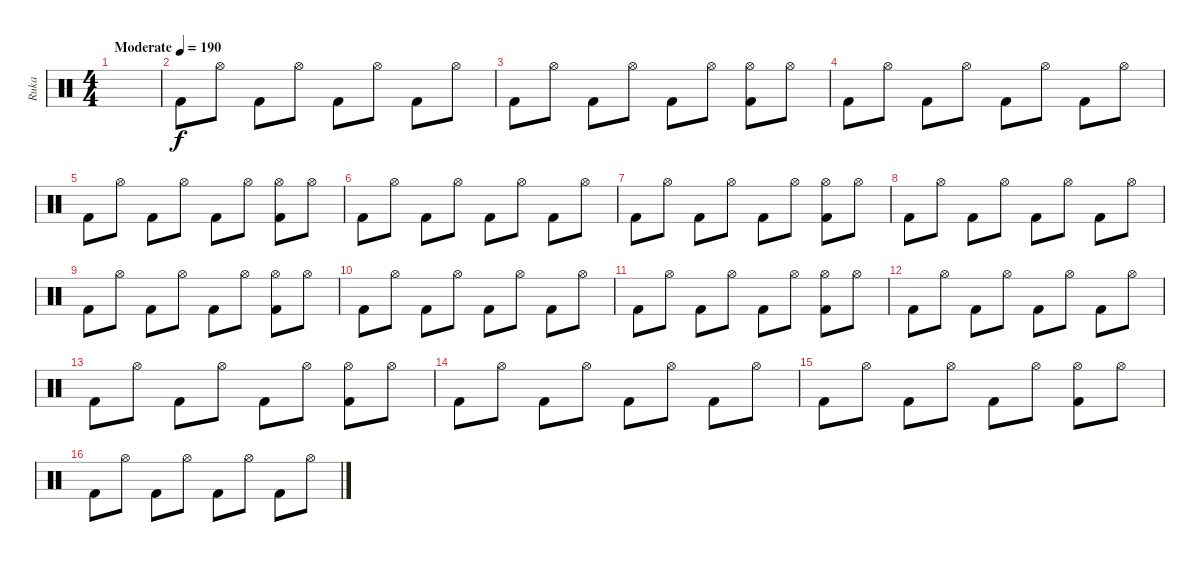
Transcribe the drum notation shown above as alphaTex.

\track ("Ruka" "Ruka") {instrument percussion}
\staff {score}
\articulation defaults
\ts (4 4)
\tempo (190 "Moderate")
\clef neutral
\ks c
|
"Kick (hit) 2".8 "Hi-Hat (open)".8 "Kick (hit) 2".8 "Hi-Hat (open)".8 "Kick (hit) 2".8 "Hi-Hat (open)".8 "Kick (hit) 2".8 "Hi-Hat (open)".8 |
"Kick (hit) 2".8 "Hi-Hat (open)".8 "Kick (hit) 2".8 "Hi-Hat (open)".8 "Kick (hit) 2".8 "Hi-Hat (open)".8 ("Hi-Hat (open)" "Kick (hit) 2").8 "Hi-Hat (open)".8 |
"Kick (hit) 2".8 "Hi-Hat (open)".8 "Kick (hit) 2".8 "Hi-Hat (open)".8 "Kick (hit) 2".8 "Hi-Hat (open)".8 "Kick (hit) 2".8 "Hi-Hat (open)".8 |
"Kick (hit) 2".8 "Hi-Hat (open)".8 "Kick (hit) 2".8 "Hi-Hat (open)".8 "Kick (hit) 2".8 "Hi-Hat (open)".8 ("Hi-Hat (open)" "Kick (hit) 2").8 "Hi-Hat (open)".8 |
"Kick (hit) 2".8 "Hi-Hat (open)".8 "Kick (hit) 2".8 "Hi-Hat (open)".8 "Kick (hit) 2".8 "Hi-Hat (open)".8 "Kick (hit) 2".8 "Hi-Hat (open)".8 |
"Kick (hit) 2".8 "Hi-Hat (open)".8 "Kick (hit) 2".8 "Hi-Hat (open)".8 "Kick (hit) 2".8 "Hi-Hat (open)".8 ("Hi-Hat (open)" "Kick (hit) 2").8 "Hi-Hat (open)".8 |
"Kick (hit) 2".8 "Hi-Hat (open)".8 "Kick (hit) 2".8 "Hi-Hat (open)".8 "Kick (hit) 2".8 "Hi-Hat (open)".8 "Kick (hit) 2".8 "Hi-Hat (open)".8 |
"Kick (hit) 2".8 "Hi-Hat (open)".8 "Kick (hit) 2".8 "Hi-Hat (open)".8 "Kick (hit) 2".8 "Hi-Hat (open)".8 ("Hi-Hat (open)" "Kick (hit) 2").8 "Hi-Hat (open)".8 |
"Kick (hit) 2".8 "Hi-Hat (open)".8 "Kick (hit) 2".8 "Hi-Hat (open)".8 "Kick (hit) 2".8 "Hi-Hat (open)".8 "Kick (hit) 2".8 "Hi-Hat (open)".8 |
"Kick (hit) 2".8 "Hi-Hat (open)".8 "Kick (hit) 2".8 "Hi-Hat (open)".8 "Kick (hit) 2".8 "Hi-Hat (open)".8 ("Hi-Hat (open)" "Kick (hit) 2").8 "Hi-Hat (open)".8 |
"Kick (hit) 2".8 "Hi-Hat (open)".8 "Kick (hit) 2".8 "Hi-Hat (open)".8 "Kick (hit) 2".8 "Hi-Hat (open)".8 "Kick (hit) 2".8 "Hi-Hat (open)".8 |
"Kick (hit) 2".8 "Hi-Hat (open)".8 "Kick (hit) 2".8 "Hi-Hat (open)".8 "Kick (hit) 2".8 "Hi-Hat (open)".8 ("Hi-Hat (open)" "Kick (hit) 2").8 "Hi-Hat (open)".8 |
"Kick (hit) 2".8 "Hi-Hat (open)".8 "Kick (hit) 2".8 "Hi-Hat (open)".8 "Kick (hit) 2".8 "Hi-Hat (open)".8 "Kick (hit) 2".8 "Hi-Hat (open)".8 |
"Kick (hit) 2".8 "Hi-Hat (open)".8 "Kick (hit) 2".8 "Hi-Hat (open)".8 "Kick (hit) 2".8 "Hi-Hat (open)".8 ("Hi-Hat (open)" "Kick (hit) 2").8 "Hi-Hat (open)".8 |
"Kick (hit) 2".8 "Hi-Hat (open)".8 "Kick (hit) 2".8 "Hi-Hat (open)".8 "Kick (hit) 2".8 "Hi-Hat (open)".8 "Kick (hit) 2".8 "Hi-Hat (open)".8
